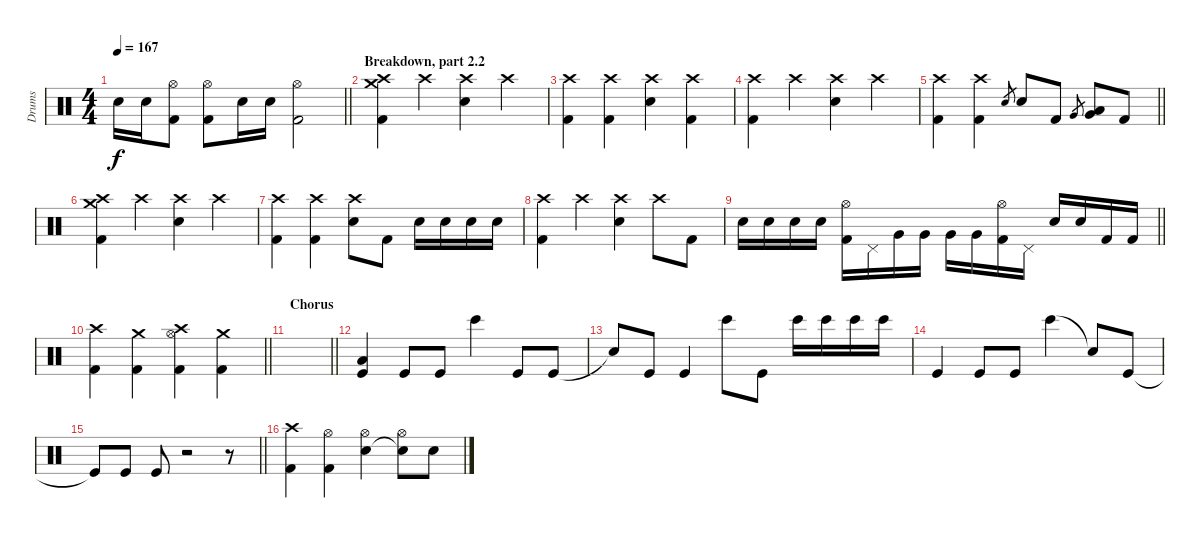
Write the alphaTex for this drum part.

\track ("Drums" "Drums") {instrument percussion}
\staff {score}
\articulation defaults
\ts (4 4)
\tempo 167
\clef neutral
\barLineRight lightlight
\ks c "Electric Snare (hit)".16{dy f} "Electric Snare (hit)".16
("Kick (hit) 2" "Hi-Hat (open)").8 ("Kick (hit) 2" "Hi-Hat (open)").8 "Electric Snare (hit)".16 "Electric Snare (hit)".16 ("Kick (hit) 2" "Hi-Hat (open)").2 |
\section ("" "Breakdown, part 2.2")
("Kick (hit) 2" "Crash high (hit)" "Crash medium (hit)").4 "Crash high (hit)".4 ("Electric Snare (hit)" "Crash high (hit)").4 "Crash high (hit)".4 |
("Kick (hit) 2" "Crash high (hit)").4 ("Kick (hit) 2" "Crash high (hit)").4 ("Electric Snare (hit)" "Crash high (hit)").4 ("Kick (hit) 2" "Crash high (hit)").4 |
("Kick (hit) 2" "Crash high (hit)").4 "Crash high (hit)".4 ("Electric Snare (hit)" "Crash high (hit)").4 "Crash high (hit)".4 |
\barLineRight lightlight
("Kick (hit) 2" "Crash high (hit)").4 ("Kick (hit) 2" "Crash high (hit)").4 "Electric Snare (hit)".8{gr} "Electric Snare (hit)".8 "Kick (hit) 2".8 "Very Low Tom (hit)".8{gr} ("Very Low Tom (hit)" "Low Floor Tom (hit)").8 "Kick (hit) 2".8 |
("Kick (hit) 2" "Crash high (hit)" "Crash medium (hit)").4 "Crash high (hit)".4 ("Electric Snare (hit)" "Crash high (hit)").4 "Crash high (hit)".4 |
("Kick (hit) 2" "Crash high (hit)").4 ("Kick (hit) 2" "Crash high (hit)").4 ("Electric Snare (hit)" "Crash high (hit)").8 "Kick (hit) 2".8 "Electric Snare (hit)".16 "Electric Snare (hit)".16 "Electric Snare (hit)".16 "Electric Snare (hit)".16 |
("Kick (hit) 2" "Crash high (hit)").4 "Crash high (hit)".4 ("Electric Snare (hit)" "Crash high (hit)").4 "Crash high (hit)".8 "Kick (hit) 2".8 |
\barLineRight lightlight "Electric Snare (hit)".16 "Electric Snare (hit)".16 "Electric Snare (hit)".16 "Electric Snare (hit)".16
("Kick (hit) 2" "Hi-Hat (open)").16 "Pedal Hi-Hat (hit)".16 "Very Low Tom (hit)".16 "Very Low Tom (hit)".16 "Very Low Tom (hit)".16 "Very Low Tom (hit)".16 ("Kick (hit) 2" "Hi-Hat (open)").16 "Pedal Hi-Hat (hit)".16 "Electric Snare (hit)".16 "Electric Snare (hit)".16 "Kick (hit) 2".16 "Kick (hit) 2".16 |
\barLineRight lightlight
("Kick (hit) 2" "Crash high (hit)").4 ("Kick (hit) 2" "Crash medium (hit)").4 ("Kick (hit) 2" "Hi-Hat (open)" "Crash high (hit)").4 ("Kick (hit) 2" "Crash medium (hit)").4 |
\section ("" "Chorus")
\barLineRight lightlight
|
("Kick (hit)" "Low Floor Tom (hit)").4 "Kick (hit)".8 "Kick (hit)".8 "Bongo High (hit)".4 "Kick (hit)".8 "Kick (hit)".8 |
"Snare (hit)"{t}.8 "Kick (hit)".8 "Kick (hit)".4 "Bongo High (hit)".8 "Kick (hit)".8 "Bongo High (hit)".16 "Bongo High (hit)".16 "Bongo High (hit)".16 "Bongo High (hit)".16 |
"Kick (hit)".4 "Kick (hit)".8 "Kick (hit)".8 "Bongo High (hit)".4 "Snare (hit)"{t}.8 "Kick (hit)".8 |
\barLineRight lightlight "Kick (hit)"{t}.8 "Kick (hit)".8 "Kick (hit)".8
r.2 r.8 |
("Kick (hit) 2" "Crash high (hit)").4 ("Kick (hit) 2" "Hi-Hat (open)").4 ("Electric Snare (hit)" "Hi-Hat (open)").4 ("Snare (hit)"{t} "Hi-Hat (open)").8 "Electric Snare (hit)".8
